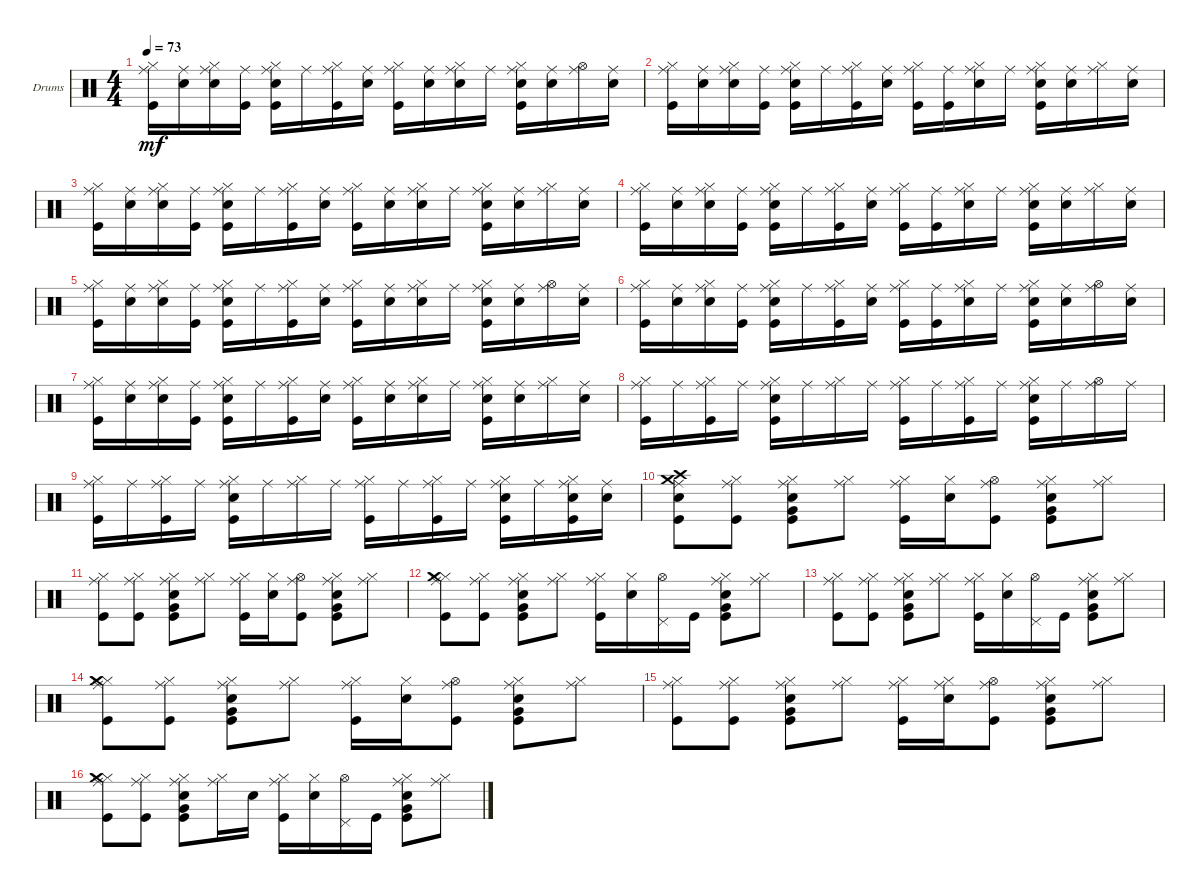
\bracketExtendMode groupsimilarinstruments
\firstSystemTrackNameOrientation horizontal
\otherSystemsTrackNameOrientation horizontal
\track ("Drums" "Drums") {instrument percussion}
\staff {score}
\articulation defaults
\ts (4 4)
\tempo 73
\clef neutral
\ks c
("Kick (hit)" "Hi-Hat (closed)" "Ride (middle)").16{dy mf} ("Snare (hit) 2" "Ride (middle)").16 ("Hi-Hat (closed)" "Snare (hit) 2" "Ride (middle)").16 ("Kick (hit)" "Ride (middle)").16 ("Kick (hit)" "Snare (hit) 2" "Hi-Hat (closed)" "Ride (middle)").16 "Ride (middle)".16 ("Hi-Hat (closed)" "Kick (hit)" "Ride (middle)").16 ("Snare (hit) 2" "Ride (middle)").16 ("Kick (hit)" "Hi-Hat (closed)" "Ride (middle)").16 ("Snare (hit) 2" "Ride (middle)").16 ("Hi-Hat (closed)" "Snare (hit) 2" "Ride (middle)").16 "Ride (middle)".16 ("Kick (hit)" "Snare (hit) 2" "Hi-Hat (closed)" "Ride (middle)").16 ("Snare (hit) 2" "Ride (middle)").16 ("Hi-Hat (open)" "Ride (middle)").16 ("Snare (hit) 2" "Ride (middle)").16 |
("Kick (hit)" "Hi-Hat (closed)" "Ride (middle)").16 ("Snare (hit) 2" "Ride (middle)").16 ("Hi-Hat (closed)" "Snare (hit) 2" "Ride (middle)").16 ("Kick (hit)" "Ride (middle)").16 ("Kick (hit)" "Snare (hit) 2" "Hi-Hat (closed)" "Ride (middle)").16 "Ride (middle)".16 ("Hi-Hat (closed)" "Kick (hit)" "Ride (middle)").16 ("Snare (hit) 2" "Ride (middle)").16 ("Kick (hit)" "Hi-Hat (closed)" "Ride (middle)").16 ("Kick (hit)" "Ride (middle)").16 ("Hi-Hat (closed)" "Snare (hit) 2" "Ride (middle)").16 "Ride (middle)".16 ("Kick (hit)" "Snare (hit) 2" "Hi-Hat (closed)" "Ride (middle)").16 ("Snare (hit) 2" "Ride (middle)").16 ("Hi-Hat (closed)" "Ride (middle)").16 ("Snare (hit) 2" "Ride (middle)").16 |
("Kick (hit)" "Hi-Hat (closed)" "Ride (middle)").16 ("Snare (hit) 2" "Ride (middle)").16 ("Hi-Hat (closed)" "Snare (hit) 2" "Ride (middle)").16 ("Kick (hit)" "Ride (middle)").16 ("Kick (hit)" "Snare (hit) 2" "Hi-Hat (closed)" "Ride (middle)").16 "Ride (middle)".16 ("Hi-Hat (closed)" "Kick (hit)" "Ride (middle)").16 ("Snare (hit) 2" "Ride (middle)").16 ("Kick (hit)" "Hi-Hat (closed)" "Ride (middle)").16 ("Snare (hit) 2" "Ride (middle)").16 ("Hi-Hat (closed)" "Snare (hit) 2" "Ride (middle)").16 "Ride (middle)".16 ("Kick (hit)" "Snare (hit) 2" "Hi-Hat (closed)" "Ride (middle)").16 ("Snare (hit) 2" "Ride (middle)").16 ("Hi-Hat (closed)" "Ride (middle)").16 ("Snare (hit) 2" "Ride (middle)").16 |
("Kick (hit)" "Hi-Hat (closed)" "Ride (middle)").16 ("Snare (hit) 2" "Ride (middle)").16 ("Hi-Hat (closed)" "Snare (hit) 2" "Ride (middle)").16 ("Kick (hit)" "Ride (middle)").16 ("Kick (hit)" "Snare (hit) 2" "Hi-Hat (closed)" "Ride (middle)").16 "Ride (middle)".16 ("Hi-Hat (closed)" "Kick (hit)" "Ride (middle)").16 ("Snare (hit) 2" "Ride (middle)").16 ("Kick (hit)" "Hi-Hat (closed)" "Ride (middle)").16 ("Kick (hit)" "Ride (middle)").16 ("Hi-Hat (closed)" "Snare (hit) 2" "Ride (middle)").16 "Ride (middle)".16 ("Kick (hit)" "Snare (hit) 2" "Hi-Hat (closed)" "Ride (middle)").16 ("Snare (hit) 2" "Ride (middle)").16 ("Hi-Hat (closed)" "Ride (middle)").16 ("Snare (hit) 2" "Ride (middle)").16 |
("Kick (hit)" "Hi-Hat (closed)" "Ride (middle)").16 ("Snare (hit) 2" "Ride (middle)").16 ("Hi-Hat (closed)" "Snare (hit) 2" "Ride (middle)").16 ("Kick (hit)" "Ride (middle)").16 ("Kick (hit)" "Snare (hit) 2" "Hi-Hat (closed)" "Ride (middle)").16 "Ride (middle)".16 ("Hi-Hat (closed)" "Kick (hit)" "Ride (middle)").16 ("Snare (hit) 2" "Ride (middle)").16 ("Kick (hit)" "Hi-Hat (closed)" "Ride (middle)").16 ("Snare (hit) 2" "Ride (middle)").16 ("Hi-Hat (closed)" "Snare (hit) 2" "Ride (middle)").16 "Ride (middle)".16 ("Kick (hit)" "Snare (hit) 2" "Hi-Hat (closed)" "Ride (middle)").16 ("Snare (hit) 2" "Ride (middle)").16 ("Hi-Hat (open)" "Ride (middle)").16 ("Snare (hit) 2" "Ride (middle)").16 |
("Kick (hit)" "Hi-Hat (closed)" "Ride (middle)").16 ("Snare (hit) 2" "Ride (middle)").16 ("Hi-Hat (closed)" "Snare (hit) 2" "Ride (middle)").16 ("Kick (hit)" "Ride (middle)").16 ("Kick (hit)" "Snare (hit) 2" "Hi-Hat (closed)" "Ride (middle)").16 "Ride (middle)".16 ("Hi-Hat (closed)" "Kick (hit)" "Ride (middle)").16 ("Snare (hit) 2" "Ride (middle)").16 ("Kick (hit)" "Hi-Hat (closed)" "Ride (middle)").16 ("Kick (hit)" "Ride (middle)").16 ("Hi-Hat (closed)" "Snare (hit) 2" "Ride (middle)").16 "Ride (middle)".16 ("Kick (hit)" "Snare (hit) 2" "Hi-Hat (closed)" "Ride (middle)").16 ("Snare (hit) 2" "Ride (middle)").16 ("Hi-Hat (open)" "Ride (middle)").16 ("Snare (hit) 2" "Ride (middle)").16 |
("Kick (hit)" "Hi-Hat (closed)" "Ride (middle)").16 ("Snare (hit) 2" "Ride (middle)").16 ("Hi-Hat (closed)" "Snare (hit) 2" "Ride (middle)").16 ("Kick (hit)" "Ride (middle)").16 ("Kick (hit)" "Snare (hit) 2" "Hi-Hat (closed)" "Ride (middle)").16 "Ride (middle)".16 ("Hi-Hat (closed)" "Kick (hit)" "Ride (middle)").16 ("Snare (hit) 2" "Ride (middle)").16 ("Kick (hit)" "Hi-Hat (closed)" "Ride (middle)").16 ("Snare (hit) 2" "Ride (middle)").16 ("Hi-Hat (closed)" "Snare (hit) 2" "Ride (middle)").16 "Ride (middle)".16 ("Kick (hit)" "Snare (hit) 2" "Hi-Hat (closed)" "Ride (middle)").16 ("Snare (hit) 2" "Ride (middle)").16 ("Hi-Hat (closed)" "Ride (middle)").16 ("Snare (hit) 2" "Ride (middle)").16 |
("Kick (hit)" "Hi-Hat (closed)" "Ride (middle)").16 "Ride (middle)".16 ("Hi-Hat (closed)" "Kick (hit)" "Ride (middle)").16 "Ride (middle)".16 ("Kick (hit)" "Snare (hit) 2" "Hi-Hat (closed)" "Ride (middle)").16 "Ride (middle)".16 ("Hi-Hat (closed)" "Ride (middle)").16 "Ride (middle)".16 ("Kick (hit)" "Hi-Hat (closed)" "Ride (middle)").16 "Ride (middle)".16 ("Hi-Hat (closed)" "Kick (hit)" "Ride (middle)").16 "Ride (middle)".16 ("Kick (hit)" "Snare (hit) 2" "Hi-Hat (closed)" "Ride (middle)").16 "Ride (middle)".16 ("Hi-Hat (open)" "Ride (middle)").16 "Ride (middle)".16 |
("Kick (hit)" "Hi-Hat (closed)" "Ride (middle)").16 "Ride (middle)".16 ("Hi-Hat (closed)" "Kick (hit)" "Ride (middle)").16 "Ride (middle)".16 ("Kick (hit)" "Snare (hit) 2" "Hi-Hat (closed)" "Ride (middle)").16 "Ride (middle)".16 ("Hi-Hat (closed)" "Ride (middle)").16 "Ride (middle)".16 ("Kick (hit)" "Hi-Hat (closed)" "Ride (middle)").16 "Ride (middle)".16 ("Hi-Hat (closed)" "Kick (hit)" "Ride (middle)").16 "Ride (middle)".16 ("Kick (hit)" "Snare (hit) 2" "Hi-Hat (closed)" "Ride (middle)").16 "Ride (middle)".16 ("Kick (hit)" "Snare (hit) 2" "Hi-Hat (closed)" "Ride (middle)").16 ("Snare (hit) 2" "Ride (middle)").16 |
("Kick (hit)" "Snare (hit) 2" "Crash medium (hit)" "Crash high (hit)" "Ride (middle)").8 ("Hi-Hat (closed)" "Kick (hit)" "Ride (middle)").8 ("Kick (hit)" "Snare (hit) 2" "Hi-Hat (closed)" "Very Low Tom (hit)" "Ride (middle)").8 ("Hi-Hat (closed)" "Ride (middle)").8 ("Kick (hit)" "Hi-Hat (closed)" "Ride (middle)").16 ("Hi-Hat (closed)" "Snare (hit) 2").16 ("Hi-Hat (open)" "Kick (hit)" "Ride (middle)").8 ("Kick (hit)" "Snare (hit) 2" "Hi-Hat (closed)" "Very Low Tom (hit)" "Ride (middle)").8 ("Hi-Hat (closed)" "Ride (middle)").8 |
("Kick (hit)" "Hi-Hat (closed)" "Ride (middle)").8 ("Hi-Hat (closed)" "Kick (hit)" "Ride (middle)").8 ("Kick (hit)" "Snare (hit) 2" "Hi-Hat (closed)" "Very Low Tom (hit)" "Ride (middle)").8 ("Hi-Hat (closed)" "Ride (middle)").8 ("Kick (hit)" "Hi-Hat (closed)" "Ride (middle)").16 ("Hi-Hat (closed)" "Snare (hit) 2").16 ("Hi-Hat (open)" "Kick (hit)" "Ride (middle)").8 ("Kick (hit)" "Snare (hit) 2" "Hi-Hat (closed)" "Very Low Tom (hit)" "Ride (middle)").8 ("Hi-Hat (closed)" "Ride (middle)").8 |
("Kick (hit)" "Hi-Hat (closed)" "Ride (middle)" "Crash medium (hit)").8 ("Hi-Hat (closed)" "Kick (hit)" "Ride (middle)").8 ("Kick (hit)" "Snare (hit) 2" "Hi-Hat (closed)" "Very Low Tom (hit)" "Ride (middle)").8 ("Hi-Hat (closed)" "Ride (middle)").8 ("Kick (hit)" "Hi-Hat (closed)" "Ride (middle)").16 ("Hi-Hat (closed)" "Snare (hit) 2").16 ("Hi-Hat (open)" "Pedal Hi-Hat (hit)").16 "Kick (hit)".16 ("Kick (hit)" "Snare (hit) 2" "Hi-Hat (closed)" "Very Low Tom (hit)" "Ride (middle)").8 ("Hi-Hat (closed)" "Ride (middle)").8 |
("Kick (hit)" "Hi-Hat (closed)" "Ride (middle)").8 ("Hi-Hat (closed)" "Kick (hit)" "Ride (middle)").8 ("Kick (hit)" "Snare (hit) 2" "Hi-Hat (closed)" "Very Low Tom (hit)" "Ride (middle)").8 ("Hi-Hat (closed)" "Ride (middle)").8 ("Kick (hit)" "Hi-Hat (closed)" "Ride (middle)").16 ("Hi-Hat (closed)" "Snare (hit) 2").16 ("Hi-Hat (open)" "Pedal Hi-Hat (hit)").16 "Kick (hit)".16 ("Kick (hit)" "Snare (hit) 2" "Hi-Hat (closed)" "Very Low Tom (hit)" "Ride (middle)").8 ("Hi-Hat (closed)" "Ride (middle)").8 |
("Kick (hit)" "Hi-Hat (closed)" "Ride (middle)" "Crash medium (hit)").8 ("Hi-Hat (closed)" "Kick (hit)" "Ride (middle)").8 ("Kick (hit)" "Snare (hit) 2" "Hi-Hat (closed)" "Very Low Tom (hit)" "Ride (middle)").8 ("Hi-Hat (closed)" "Ride (middle)").8 ("Kick (hit)" "Hi-Hat (closed)" "Ride (middle)").16 ("Hi-Hat (closed)" "Snare (hit) 2").16 ("Hi-Hat (open)" "Kick (hit)" "Ride (middle)").8 ("Kick (hit)" "Snare (hit) 2" "Hi-Hat (closed)" "Very Low Tom (hit)" "Ride (middle)").8 ("Hi-Hat (closed)" "Ride (middle)").8 |
("Kick (hit)" "Hi-Hat (closed)" "Ride (middle)").8 ("Hi-Hat (closed)" "Kick (hit)" "Ride (middle)").8 ("Kick (hit)" "Snare (hit) 2" "Hi-Hat (closed)" "Very Low Tom (hit)" "Ride (middle)").8 ("Hi-Hat (closed)" "Ride (middle)").8 ("Kick (hit)" "Hi-Hat (closed)" "Ride (middle)").16 ("Hi-Hat (closed)" "Snare (hit) 2" "Ride (middle)").16 ("Hi-Hat (open)" "Kick (hit)" "Ride (middle)").8 ("Kick (hit)" "Snare (hit) 2" "Hi-Hat (closed)" "Very Low Tom (hit)" "Ride (middle)").8 ("Hi-Hat (closed)" "Ride (middle)").8 |
("Kick (hit)" "Hi-Hat (closed)" "Ride (middle)" "Crash medium (hit)").8 ("Hi-Hat (closed)" "Kick (hit)" "Ride (middle)").8 ("Kick (hit)" "Snare (hit) 2" "Hi-Hat (closed)" "Very Low Tom (hit)" "Ride (middle)").8 ("Hi-Hat (closed)" "Ride (middle)").16 "Snare (hit) 2".16 ("Kick (hit)" "Hi-Hat (closed)" "Ride (middle)").16 ("Hi-Hat (closed)" "Snare (hit) 2").16 ("Hi-Hat (open)" "Pedal Hi-Hat (hit)").16 "Kick (hit)".16 ("Kick (hit)" "Snare (hit) 2" "Hi-Hat (closed)" "Very Low Tom (hit)" "Ride (middle)").8 ("Hi-Hat (closed)" "Ride (middle)").8
